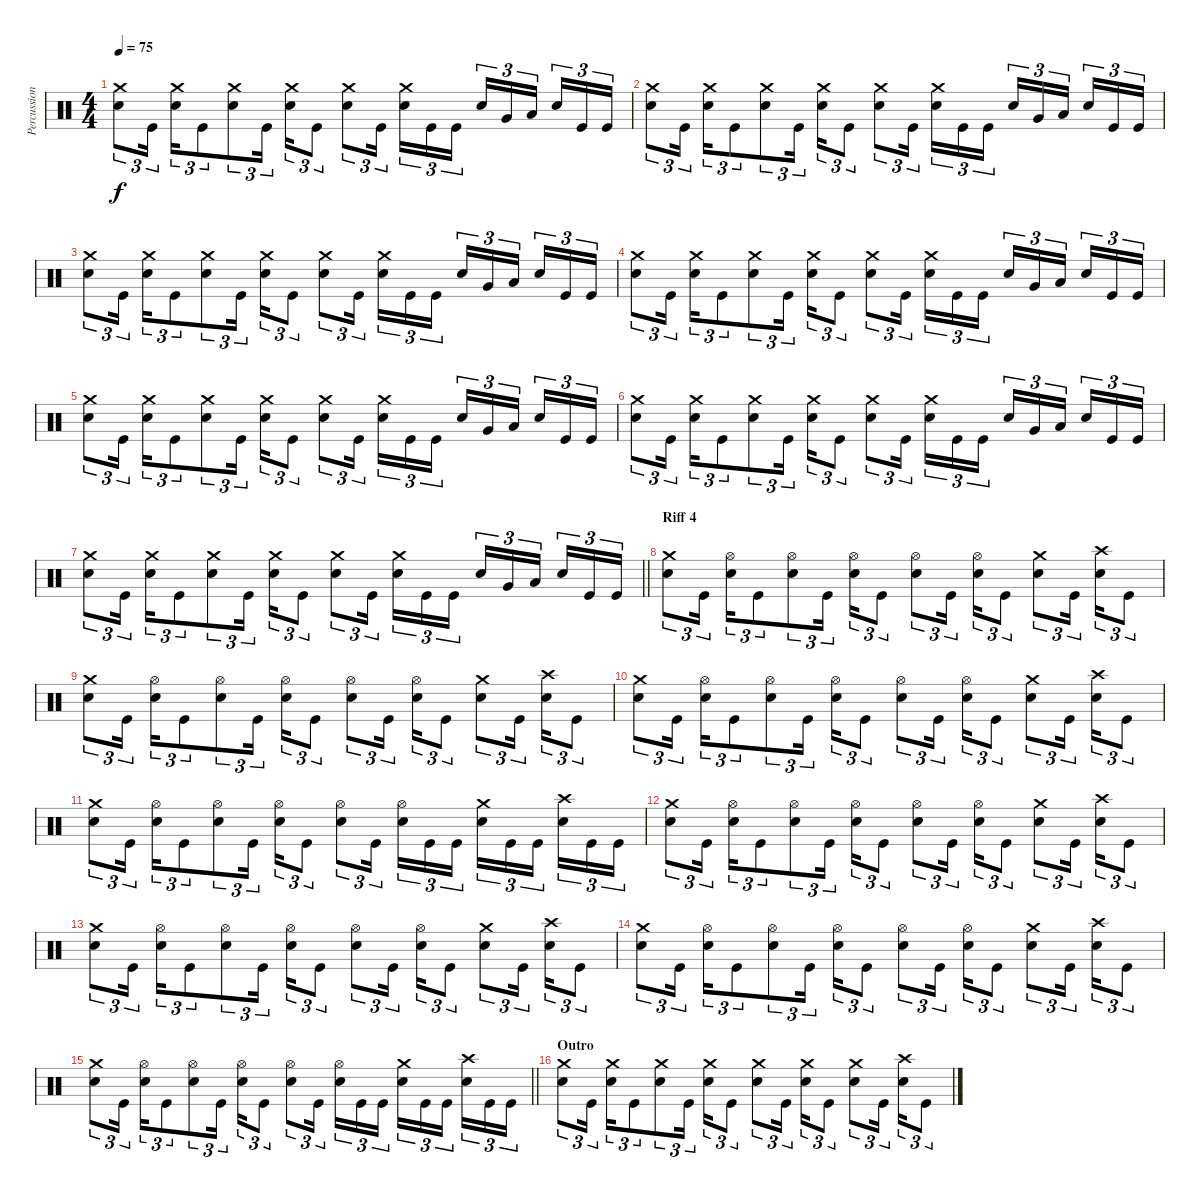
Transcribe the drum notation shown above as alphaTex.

\track ("Percussion" "Percussion") {instrument percussion}
\staff {score}
\articulation defaults
\ts (4 4)
\tempo 75
\clef neutral
\ks c
("Crash medium (hit)" "Snare (hit) 2").8{tu (3 2) dy f} "Kick (hit)".16{tu (3 2) beam splitsecondary} ("Crash medium (hit)" "Snare (hit) 2").16{tu (3 2)} "Kick (hit)".8{tu (3 2) beam merge} ("Crash medium (hit)" "Snare (hit) 2").8{tu (3 2)} "Kick (hit)".16{tu (3 2) beam splitsecondary} ("Crash medium (hit)" "Snare (hit) 2").16{tu (3 2) beam merge} "Kick (hit)".8{tu (3 2)} ("Crash medium (hit)" "Snare (hit) 2").8{tu (3 2)} "Kick (hit)".16{tu (3 2) beam splitsecondary} ("Crash medium (hit)" "Snare (hit) 2").16{tu (3 2)} "Kick (hit)".16{tu (3 2)} "Kick (hit)".16{tu (3 2)} "Snare (hit) 2".16{tu (3 2)} "Very Low Tom (hit)".16{tu (3 2)} "Low Floor Tom (hit)".16{tu (3 2) beam splitsecondary} "Snare (hit) 2".16{tu (3 2)} "Kick (hit)".16{tu (3 2)} "Kick (hit)".16{tu (3 2)} |
("Crash medium (hit)" "Snare (hit) 2").8{tu (3 2)} "Kick (hit)".16{tu (3 2) beam splitsecondary} ("Crash medium (hit)" "Snare (hit) 2").16{tu (3 2)} "Kick (hit)".8{tu (3 2) beam merge} ("Crash medium (hit)" "Snare (hit) 2").8{tu (3 2)} "Kick (hit)".16{tu (3 2) beam splitsecondary} ("Crash medium (hit)" "Snare (hit) 2").16{tu (3 2) beam merge} "Kick (hit)".8{tu (3 2)} ("Crash medium (hit)" "Snare (hit) 2").8{tu (3 2)} "Kick (hit)".16{tu (3 2) beam splitsecondary} ("Crash medium (hit)" "Snare (hit) 2").16{tu (3 2)} "Kick (hit)".16{tu (3 2)} "Kick (hit)".16{tu (3 2)} "Snare (hit) 2".16{tu (3 2)} "Very Low Tom (hit)".16{tu (3 2)} "Low Floor Tom (hit)".16{tu (3 2) beam splitsecondary} "Snare (hit) 2".16{tu (3 2)} "Kick (hit)".16{tu (3 2)} "Kick (hit)".16{tu (3 2)} |
("Crash medium (hit)" "Snare (hit) 2").8{tu (3 2)} "Kick (hit)".16{tu (3 2) beam splitsecondary} ("Crash medium (hit)" "Snare (hit) 2").16{tu (3 2)} "Kick (hit)".8{tu (3 2) beam merge} ("Crash medium (hit)" "Snare (hit) 2").8{tu (3 2)} "Kick (hit)".16{tu (3 2) beam splitsecondary} ("Crash medium (hit)" "Snare (hit) 2").16{tu (3 2) beam merge} "Kick (hit)".8{tu (3 2)} ("Crash medium (hit)" "Snare (hit) 2").8{tu (3 2)} "Kick (hit)".16{tu (3 2) beam splitsecondary} ("Crash medium (hit)" "Snare (hit) 2").16{tu (3 2)} "Kick (hit)".16{tu (3 2)} "Kick (hit)".16{tu (3 2)} "Snare (hit) 2".16{tu (3 2)} "Very Low Tom (hit)".16{tu (3 2)} "Low Floor Tom (hit)".16{tu (3 2) beam splitsecondary} "Snare (hit) 2".16{tu (3 2)} "Kick (hit)".16{tu (3 2)} "Kick (hit)".16{tu (3 2)} |
("Crash medium (hit)" "Snare (hit) 2").8{tu (3 2)} "Kick (hit)".16{tu (3 2) beam splitsecondary} ("Crash medium (hit)" "Snare (hit) 2").16{tu (3 2)} "Kick (hit)".8{tu (3 2) beam merge} ("Crash medium (hit)" "Snare (hit) 2").8{tu (3 2)} "Kick (hit)".16{tu (3 2) beam splitsecondary} ("Crash medium (hit)" "Snare (hit) 2").16{tu (3 2) beam merge} "Kick (hit)".8{tu (3 2)} ("Crash medium (hit)" "Snare (hit) 2").8{tu (3 2)} "Kick (hit)".16{tu (3 2) beam splitsecondary} ("Crash medium (hit)" "Snare (hit) 2").16{tu (3 2)} "Kick (hit)".16{tu (3 2)} "Kick (hit)".16{tu (3 2)} "Snare (hit) 2".16{tu (3 2)} "Very Low Tom (hit)".16{tu (3 2)} "Low Floor Tom (hit)".16{tu (3 2) beam splitsecondary} "Snare (hit) 2".16{tu (3 2)} "Kick (hit)".16{tu (3 2)} "Kick (hit)".16{tu (3 2)} |
("Crash medium (hit)" "Snare (hit) 2").8{tu (3 2)} "Kick (hit)".16{tu (3 2) beam splitsecondary} ("Crash medium (hit)" "Snare (hit) 2").16{tu (3 2)} "Kick (hit)".8{tu (3 2) beam merge} ("Crash medium (hit)" "Snare (hit) 2").8{tu (3 2)} "Kick (hit)".16{tu (3 2) beam splitsecondary} ("Crash medium (hit)" "Snare (hit) 2").16{tu (3 2) beam merge} "Kick (hit)".8{tu (3 2)} ("Crash medium (hit)" "Snare (hit) 2").8{tu (3 2)} "Kick (hit)".16{tu (3 2) beam splitsecondary} ("Crash medium (hit)" "Snare (hit) 2").16{tu (3 2)} "Kick (hit)".16{tu (3 2)} "Kick (hit)".16{tu (3 2)} "Snare (hit) 2".16{tu (3 2)} "Very Low Tom (hit)".16{tu (3 2)} "Low Floor Tom (hit)".16{tu (3 2) beam splitsecondary} "Snare (hit) 2".16{tu (3 2)} "Kick (hit)".16{tu (3 2)} "Kick (hit)".16{tu (3 2)} |
("Crash medium (hit)" "Snare (hit) 2").8{tu (3 2)} "Kick (hit)".16{tu (3 2) beam splitsecondary} ("Crash medium (hit)" "Snare (hit) 2").16{tu (3 2)} "Kick (hit)".8{tu (3 2) beam merge} ("Crash medium (hit)" "Snare (hit) 2").8{tu (3 2)} "Kick (hit)".16{tu (3 2) beam splitsecondary} ("Crash medium (hit)" "Snare (hit) 2").16{tu (3 2) beam merge} "Kick (hit)".8{tu (3 2)} ("Crash medium (hit)" "Snare (hit) 2").8{tu (3 2)} "Kick (hit)".16{tu (3 2) beam splitsecondary} ("Crash medium (hit)" "Snare (hit) 2").16{tu (3 2)} "Kick (hit)".16{tu (3 2)} "Kick (hit)".16{tu (3 2)} "Snare (hit) 2".16{tu (3 2)} "Very Low Tom (hit)".16{tu (3 2)} "Low Floor Tom (hit)".16{tu (3 2) beam splitsecondary} "Snare (hit) 2".16{tu (3 2)} "Kick (hit)".16{tu (3 2)} "Kick (hit)".16{tu (3 2)} |
\barLineRight lightlight
("Crash medium (hit)" "Snare (hit) 2").8{tu (3 2)} "Kick (hit)".16{tu (3 2) beam splitsecondary} ("Crash medium (hit)" "Snare (hit) 2").16{tu (3 2)} "Kick (hit)".8{tu (3 2) beam merge} ("Crash medium (hit)" "Snare (hit) 2").8{tu (3 2)} "Kick (hit)".16{tu (3 2) beam splitsecondary} ("Crash medium (hit)" "Snare (hit) 2").16{tu (3 2) beam merge} "Kick (hit)".8{tu (3 2)} ("Crash medium (hit)" "Snare (hit) 2").8{tu (3 2)} "Kick (hit)".16{tu (3 2) beam splitsecondary} ("Crash medium (hit)" "Snare (hit) 2").16{tu (3 2)} "Kick (hit)".16{tu (3 2)} "Kick (hit)".16{tu (3 2)} "Snare (hit) 2".16{tu (3 2)} "Very Low Tom (hit)".16{tu (3 2)} "Low Floor Tom (hit)".16{tu (3 2) beam splitsecondary} "Snare (hit) 2".16{tu (3 2)} "Kick (hit)".16{tu (3 2)} "Kick (hit)".16{tu (3 2)} |
\section ("" "Riff 4")
("Crash medium (hit)" "Snare (hit) 2").8{tu (3 2)} "Kick (hit)".16{tu (3 2) beam splitsecondary} ("Hi-Hat (open)" "Snare (hit) 2").16{tu (3 2)} "Kick (hit)".8{tu (3 2) beam merge} ("Hi-Hat (open)" "Snare (hit) 2").8{tu (3 2)} "Kick (hit)".16{tu (3 2) beam splitsecondary} ("Hi-Hat (open)" "Snare (hit) 2").16{tu (3 2) beam merge} "Kick (hit)".8{tu (3 2)} ("Hi-Hat (open)" "Snare (hit) 2").8{tu (3 2)} "Kick (hit)".16{tu (3 2) beam splitsecondary} ("Hi-Hat (open)" "Snare (hit) 2").16{tu (3 2)} "Kick (hit)".8{tu (3 2)} ("Crash medium (hit)" "Snare (hit) 2").8{tu (3 2)} "Kick (hit)".16{tu (3 2) beam splitsecondary} ("Crash high (hit)" "Snare (hit) 2").16{tu (3 2)} "Kick (hit)".8{tu (3 2)} |
("Crash medium (hit)" "Snare (hit) 2").8{tu (3 2)} "Kick (hit)".16{tu (3 2) beam splitsecondary} ("Hi-Hat (open)" "Snare (hit) 2").16{tu (3 2)} "Kick (hit)".8{tu (3 2) beam merge} ("Hi-Hat (open)" "Snare (hit) 2").8{tu (3 2)} "Kick (hit)".16{tu (3 2) beam splitsecondary} ("Hi-Hat (open)" "Snare (hit) 2").16{tu (3 2) beam merge} "Kick (hit)".8{tu (3 2)} ("Hi-Hat (open)" "Snare (hit) 2").8{tu (3 2)} "Kick (hit)".16{tu (3 2) beam splitsecondary} ("Hi-Hat (open)" "Snare (hit) 2").16{tu (3 2)} "Kick (hit)".8{tu (3 2)} ("Crash medium (hit)" "Snare (hit) 2").8{tu (3 2)} "Kick (hit)".16{tu (3 2) beam splitsecondary} ("Crash high (hit)" "Snare (hit) 2").16{tu (3 2)} "Kick (hit)".8{tu (3 2)} |
("Crash medium (hit)" "Snare (hit) 2").8{tu (3 2)} "Kick (hit)".16{tu (3 2) beam splitsecondary} ("Hi-Hat (open)" "Snare (hit) 2").16{tu (3 2)} "Kick (hit)".8{tu (3 2) beam merge} ("Hi-Hat (open)" "Snare (hit) 2").8{tu (3 2)} "Kick (hit)".16{tu (3 2) beam splitsecondary} ("Hi-Hat (open)" "Snare (hit) 2").16{tu (3 2) beam merge} "Kick (hit)".8{tu (3 2)} ("Hi-Hat (open)" "Snare (hit) 2").8{tu (3 2)} "Kick (hit)".16{tu (3 2) beam splitsecondary} ("Hi-Hat (open)" "Snare (hit) 2").16{tu (3 2)} "Kick (hit)".8{tu (3 2)} ("Crash medium (hit)" "Snare (hit) 2").8{tu (3 2)} "Kick (hit)".16{tu (3 2) beam splitsecondary} ("Crash high (hit)" "Snare (hit) 2").16{tu (3 2)} "Kick (hit)".8{tu (3 2)} |
("Crash medium (hit)" "Snare (hit) 2").8{tu (3 2)} "Kick (hit)".16{tu (3 2) beam splitsecondary} ("Hi-Hat (open)" "Snare (hit) 2").16{tu (3 2)} "Kick (hit)".8{tu (3 2) beam merge} ("Hi-Hat (open)" "Snare (hit) 2").8{tu (3 2)} "Kick (hit)".16{tu (3 2) beam splitsecondary} ("Hi-Hat (open)" "Snare (hit) 2").16{tu (3 2) beam merge} "Kick (hit)".8{tu (3 2)} ("Hi-Hat (open)" "Snare (hit) 2").8{tu (3 2)} "Kick (hit)".16{tu (3 2) beam splitsecondary} ("Hi-Hat (open)" "Snare (hit) 2").16{tu (3 2)} "Kick (hit)".16{tu (3 2)} "Kick (hit)".16{tu (3 2)} ("Crash medium (hit)" "Snare (hit) 2").16{tu (3 2)} "Kick (hit)".16{tu (3 2)} "Kick (hit)".16{tu (3 2) beam splitsecondary} ("Crash high (hit)" "Snare (hit) 2").16{tu (3 2)} "Kick (hit)".16{tu (3 2)} "Kick (hit)".16{tu (3 2)} |
("Crash medium (hit)" "Snare (hit) 2").8{tu (3 2)} "Kick (hit)".16{tu (3 2) beam splitsecondary} ("Hi-Hat (open)" "Snare (hit) 2").16{tu (3 2)} "Kick (hit)".8{tu (3 2) beam merge} ("Hi-Hat (open)" "Snare (hit) 2").8{tu (3 2)} "Kick (hit)".16{tu (3 2) beam splitsecondary} ("Hi-Hat (open)" "Snare (hit) 2").16{tu (3 2) beam merge} "Kick (hit)".8{tu (3 2)} ("Hi-Hat (open)" "Snare (hit) 2").8{tu (3 2)} "Kick (hit)".16{tu (3 2) beam splitsecondary} ("Hi-Hat (open)" "Snare (hit) 2").16{tu (3 2)} "Kick (hit)".8{tu (3 2)} ("Crash medium (hit)" "Snare (hit) 2").8{tu (3 2)} "Kick (hit)".16{tu (3 2) beam splitsecondary} ("Crash high (hit)" "Snare (hit) 2").16{tu (3 2)} "Kick (hit)".8{tu (3 2)} |
("Crash medium (hit)" "Snare (hit) 2").8{tu (3 2)} "Kick (hit)".16{tu (3 2) beam splitsecondary} ("Hi-Hat (open)" "Snare (hit) 2").16{tu (3 2)} "Kick (hit)".8{tu (3 2) beam merge} ("Hi-Hat (open)" "Snare (hit) 2").8{tu (3 2)} "Kick (hit)".16{tu (3 2) beam splitsecondary} ("Hi-Hat (open)" "Snare (hit) 2").16{tu (3 2) beam merge} "Kick (hit)".8{tu (3 2)} ("Hi-Hat (open)" "Snare (hit) 2").8{tu (3 2)} "Kick (hit)".16{tu (3 2) beam splitsecondary} ("Hi-Hat (open)" "Snare (hit) 2").16{tu (3 2)} "Kick (hit)".8{tu (3 2)} ("Crash medium (hit)" "Snare (hit) 2").8{tu (3 2)} "Kick (hit)".16{tu (3 2) beam splitsecondary} ("Crash high (hit)" "Snare (hit) 2").16{tu (3 2)} "Kick (hit)".8{tu (3 2)} |
("Crash medium (hit)" "Snare (hit) 2").8{tu (3 2)} "Kick (hit)".16{tu (3 2) beam splitsecondary} ("Hi-Hat (open)" "Snare (hit) 2").16{tu (3 2)} "Kick (hit)".8{tu (3 2) beam merge} ("Hi-Hat (open)" "Snare (hit) 2").8{tu (3 2)} "Kick (hit)".16{tu (3 2) beam splitsecondary} ("Hi-Hat (open)" "Snare (hit) 2").16{tu (3 2) beam merge} "Kick (hit)".8{tu (3 2)} ("Hi-Hat (open)" "Snare (hit) 2").8{tu (3 2)} "Kick (hit)".16{tu (3 2) beam splitsecondary} ("Hi-Hat (open)" "Snare (hit) 2").16{tu (3 2)} "Kick (hit)".8{tu (3 2)} ("Crash medium (hit)" "Snare (hit) 2").8{tu (3 2)} "Kick (hit)".16{tu (3 2) beam splitsecondary} ("Crash high (hit)" "Snare (hit) 2").16{tu (3 2)} "Kick (hit)".8{tu (3 2)} |
\barLineRight lightlight
("Crash medium (hit)" "Snare (hit) 2").8{tu (3 2)} "Kick (hit)".16{tu (3 2) beam splitsecondary} ("Hi-Hat (open)" "Snare (hit) 2").16{tu (3 2)} "Kick (hit)".8{tu (3 2) beam merge} ("Hi-Hat (open)" "Snare (hit) 2").8{tu (3 2)} "Kick (hit)".16{tu (3 2) beam splitsecondary} ("Hi-Hat (open)" "Snare (hit) 2").16{tu (3 2) beam merge} "Kick (hit)".8{tu (3 2)} ("Hi-Hat (open)" "Snare (hit) 2").8{tu (3 2)} "Kick (hit)".16{tu (3 2) beam splitsecondary} ("Hi-Hat (open)" "Snare (hit) 2").16{tu (3 2)} "Kick (hit)".16{tu (3 2)} "Kick (hit)".16{tu (3 2)} ("Crash medium (hit)" "Snare (hit) 2").16{tu (3 2)} "Kick (hit)".16{tu (3 2)} "Kick (hit)".16{tu (3 2) beam splitsecondary} ("Crash high (hit)" "Snare (hit) 2").16{tu (3 2)} "Kick (hit)".16{tu (3 2)} "Kick (hit)".16{tu (3 2)} |
\section ("" "Outro")
("Crash medium (hit)" "Snare (hit) 2").8{tu (3 2)} "Kick (hit)".16{tu (3 2) beam splitsecondary} ("Crash medium (hit)" "Snare (hit) 2").16{tu (3 2)} "Kick (hit)".8{tu (3 2) beam merge} ("Crash medium (hit)" "Snare (hit) 2").8{tu (3 2)} "Kick (hit)".16{tu (3 2) beam splitsecondary} ("Crash medium (hit)" "Snare (hit) 2").16{tu (3 2) beam merge} "Kick (hit)".8{tu (3 2)} ("Crash medium (hit)" "Snare (hit) 2").8{tu (3 2)} "Kick (hit)".16{tu (3 2) beam splitsecondary} ("Crash medium (hit)" "Snare (hit) 2").16{tu (3 2)} "Kick (hit)".8{tu (3 2)} ("Crash medium (hit)" "Snare (hit) 2").8{tu (3 2)} "Kick (hit)".16{tu (3 2) beam splitsecondary} ("Crash high (hit)" "Snare (hit) 2").16{tu (3 2)} "Kick (hit)".8{tu (3 2)}
